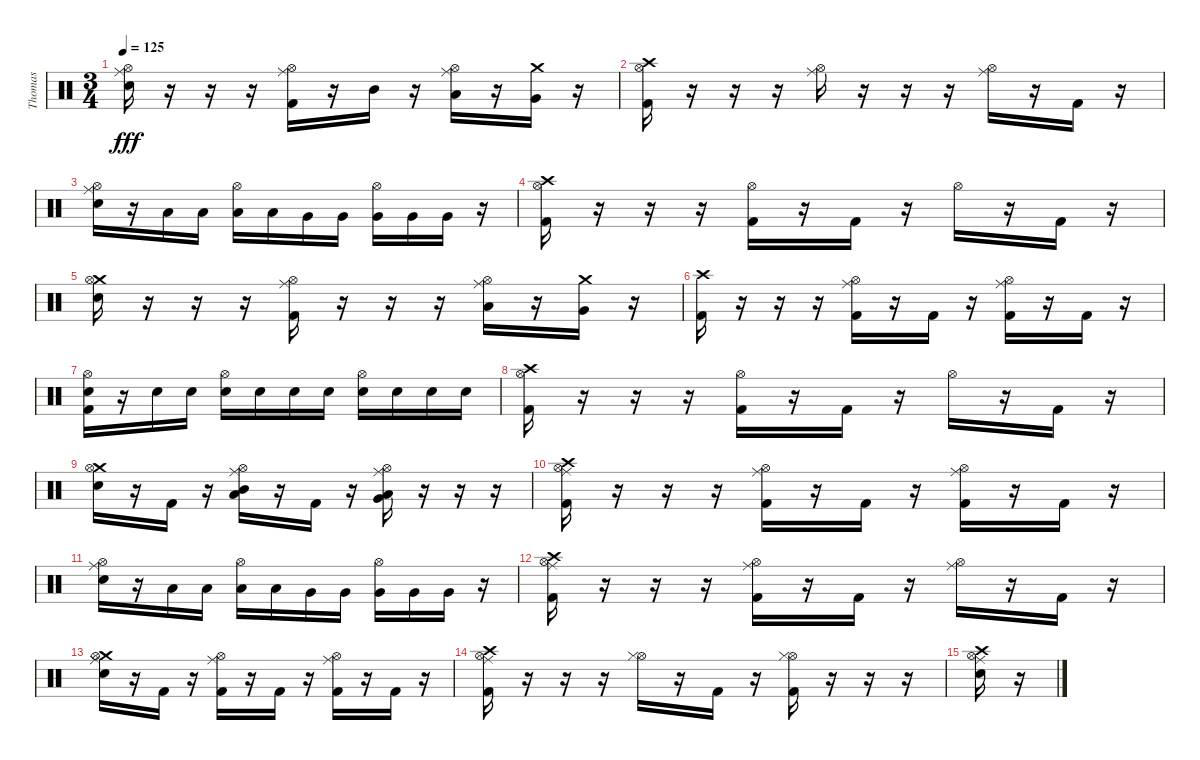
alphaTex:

\track ("Thomas " "Thomas ") {instrument percussion}
\staff {score}
\articulation defaults
\ts (3 4)
\tempo 125
\clef neutral
\ks c
("Ride (middle)" "Hi-Hat (open)" "Electric Snare (hit)").16{dy fff} r.16 r.16 r.16 ("Ride (middle)" "Hi-Hat (open)" "Kick (hit) 2").16 r.16 "Mid Tom (hit)".16 r.16 ("Ride (middle)" "Hi-Hat (open)" "Low Tom (hit)").16 r.16 ("Crash medium (hit)" "Very Low Tom (hit)").16 r.16 |
("Crash high (hit)" "Hi-Hat (open)" "Kick (hit) 2").16 r.16 r.16 r.16 ("Ride (middle)" "Hi-Hat (open)").16 r.16 r.16 r.16 ("Ride (middle)" "Hi-Hat (open)").16 r.16 "Kick (hit) 2".16 r.16 |
("Ride (middle)" "Hi-Hat (open)" "Electric Snare (hit)").16 r.16 "Low Tom (hit)".16 "Low Tom (hit)".16 ("Hi-Hat (open)" "Low Tom (hit)").16 "Low Tom (hit)".16 "Very Low Tom (hit)".16 "Very Low Tom (hit)".16 ("Hi-Hat (open)" "Very Low Tom (hit)").16 "Very Low Tom (hit)".16 "Very Low Tom (hit)".16 r.16 |
("Crash high (hit)" "Hi-Hat (open)" "Kick (hit) 2").16 r.16 r.16 r.16 ("Hi-Hat (open)" "Kick (hit) 2").16 r.16 "Kick (hit) 2".16 r.16 "Hi-Hat (open)".16 r.16 "Kick (hit) 2".16 r.16 |
("Crash medium (hit)" "Hi-Hat (open)" "Electric Snare (hit)").16 r.16 r.16 r.16 ("Ride (middle)" "Hi-Hat (open)" "Kick (hit) 2").16 r.16 r.16 r.16 ("Ride (middle)" "Hi-Hat (open)" "Low Tom (hit)").16 r.16 ("Crash medium (hit)" "Very Low Tom (hit)").16 r.16 |
("Crash high (hit)" "Kick (hit) 2").16 r.16 r.16 r.16 ("Hi-Hat (open)" "Ride (middle)" "Kick (hit) 2").16 r.16 "Kick (hit) 2".16 r.16 ("Hi-Hat (open)" "Ride (middle)" "Kick (hit) 2").16 r.16 "Kick (hit) 2".16 r.16 |
("Hi-Hat (open)" "Electric Snare (hit)" "Kick (hit) 2").16 r.16 "Electric Snare (hit)".16 "Electric Snare (hit)".16 ("Hi-Hat (open)" "Electric Snare (hit)").16 "Electric Snare (hit)".16 "Electric Snare (hit)".16 "Electric Snare (hit)".16 ("Hi-Hat (open)" "Electric Snare (hit)").16 "Electric Snare (hit)".16 "Electric Snare (hit)".16 "Electric Snare (hit)".16 |
("Crash high (hit)" "Hi-Hat (open)" "Kick (hit) 2").16 r.16 r.16 r.16 ("Hi-Hat (open)" "Kick (hit) 2").16 r.16 "Kick (hit) 2".16 r.16 "Hi-Hat (open)".16 r.16 "Kick (hit) 2".16 r.16 |
("Crash medium (hit)" "Hi-Hat (open)" "Electric Snare (hit)").16 r.16 "Kick (hit) 2".16 r.16 ("Ride (middle)" "Hi-Hat (open)" "Mid Tom (hit)" "Low Tom (hit)").16 r.16 "Kick (hit) 2".16 r.16 ("Ride (middle)" "Hi-Hat (open)" "Low Tom (hit)" "Very Low Tom (hit)").16 r.16 r.16 r.16 |
("Crash high (hit)" "Ride (middle)" "Hi-Hat (open)" "Kick (hit) 2").16 r.16 r.16 r.16 ("Ride (middle)" "Hi-Hat (open)" "Kick (hit) 2").16 r.16 "Kick (hit) 2".16 r.16 ("Ride (middle)" "Hi-Hat (open)" "Kick (hit) 2").16 r.16 "Kick (hit) 2".16 r.16 |
("Ride (middle)" "Hi-Hat (open)" "Electric Snare (hit)").16 r.16 "Low Tom (hit)".16 "Low Tom (hit)".16 ("Hi-Hat (open)" "Low Tom (hit)").16 "Low Tom (hit)".16 "Very Low Tom (hit)".16 "Very Low Tom (hit)".16 ("Hi-Hat (open)" "Very Low Tom (hit)").16 "Very Low Tom (hit)".16 "Very Low Tom (hit)".16 r.16 |
("Crash high (hit)" "Ride (middle)" "Hi-Hat (open)" "Kick (hit) 2").16 r.16 r.16 r.16 ("Ride (middle)" "Hi-Hat (open)" "Kick (hit) 2").16 r.16 "Kick (hit) 2".16 r.16 ("Ride (middle)" "Hi-Hat (open)").16 r.16 "Kick (hit) 2".16 r.16 |
("Crash medium (hit)" "Ride (middle)" "Hi-Hat (open)" "Electric Snare (hit)").16 r.16 "Kick (hit) 2".16 r.16 ("Ride (middle)" "Hi-Hat (open)" "Kick (hit) 2").16 r.16 "Kick (hit) 2".16 r.16 ("Ride (middle)" "Hi-Hat (open)" "Kick (hit) 2").16 r.16 "Kick (hit) 2".16 r.16 |
("Crash high (hit)" "Ride (middle)" "Hi-Hat (open)" "Kick (hit) 2").16 r.16 r.16 r.16 ("Hi-Hat (open)" "Hi-Hat (closed)").16 r.16 "Kick (hit) 2".16 r.16 ("Hi-Hat (open)" "Hi-Hat (closed)" "Kick (hit) 2").16 r.16 r.16 r.16 |
("Crash high (hit)" "Ride (middle)" "Hi-Hat (open)" "Electric Snare (hit)").16 r.16
